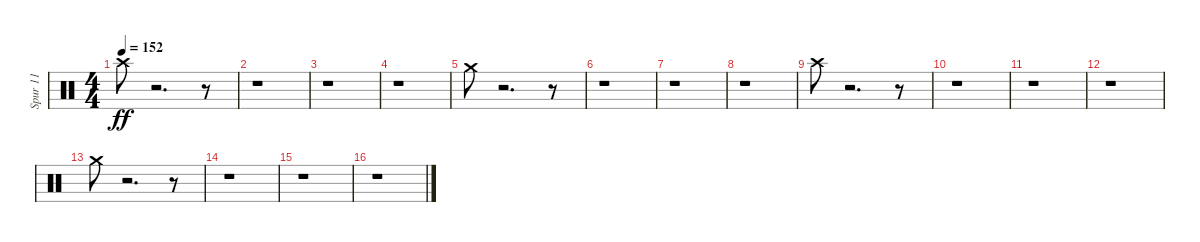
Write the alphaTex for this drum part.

\track ("Spur 11" "Spur 11") {instrument percussion}
\staff {score}
\articulation defaults
\ts (4 4)
\tempo 152
\clef neutral
\ks c "Crash high (hit)".8{dy ff}
r.2{d} r.8 |
r.1 |
r.1 |
r.1 |
"Crash medium (hit)".8 r.2{d} r.8 |
r.1 |
r.1 |
r.1 |
"Crash high (hit)".8 r.2{d} r.8 |
r.1 |
r.1 |
r.1 |
"Crash medium (hit)".8 r.2{d} r.8 |
r.1 |
r.1 |
r.1
